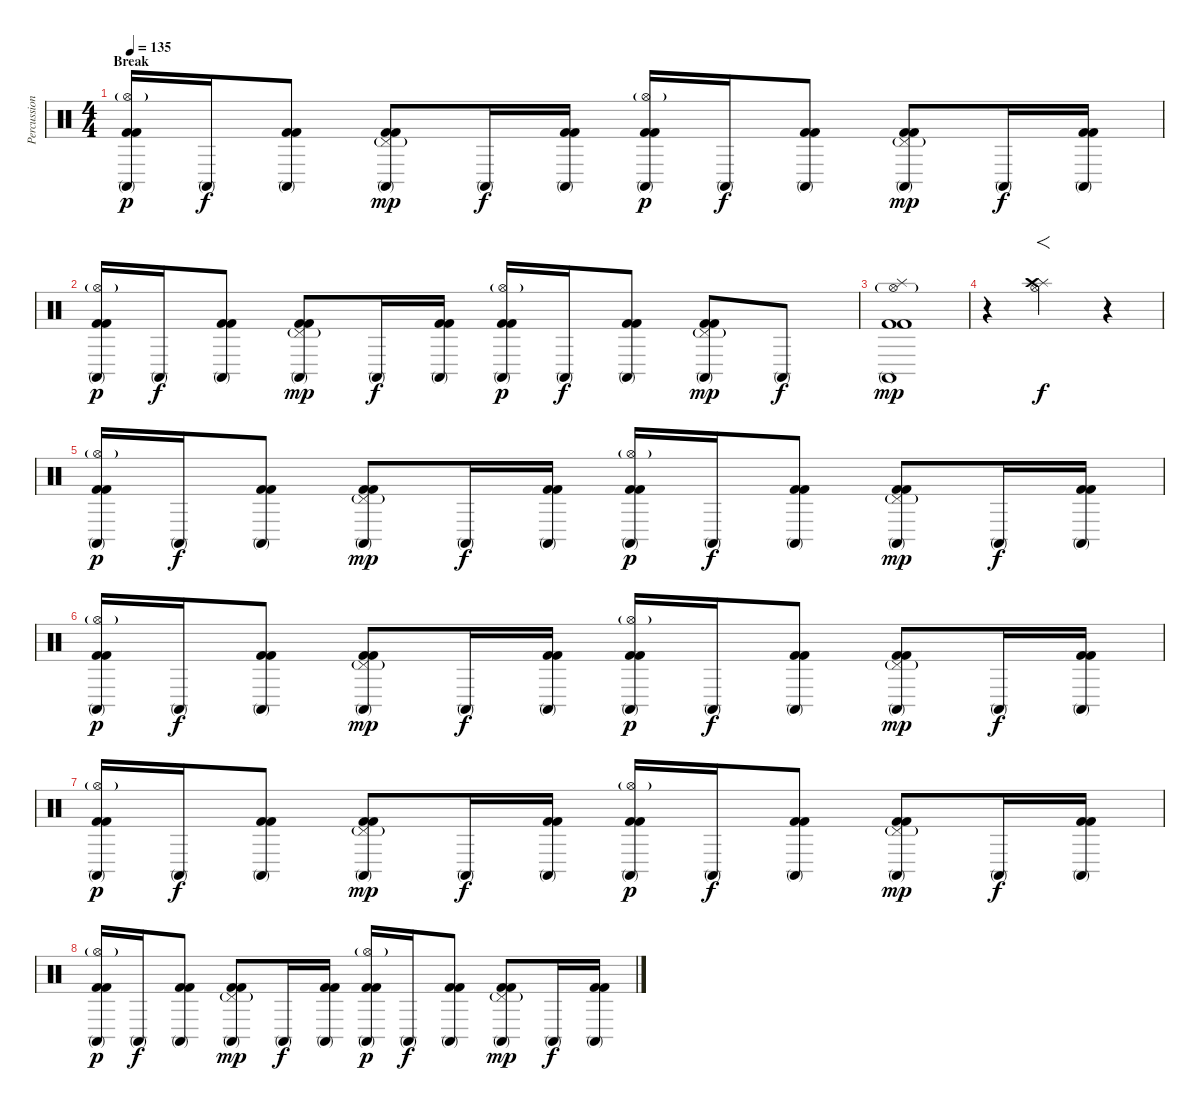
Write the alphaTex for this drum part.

\track ("Percussion" "Percussion") {instrument percussion}
\staff {score}
\articulation defaults
\ts (4 4)
\section ("" "Break")
\tempo 135
\clef neutral
\ks c
("Conga high (mute)" "Hi-Hat (open)"{g} "Kick (hit) 2" "Kick (hit) 2").16{dy p} "Conga high (mute)".16{dy f} ("Conga high (mute)" "Kick (hit) 2" "Kick (hit) 2").8 ("Conga high (mute)" "Pedal Hi-Hat (hit)"{g} "Kick (hit) 2" "Kick (hit) 2").8{dy mp} "Conga high (mute)".16{dy f} ("Conga high (mute)" "Kick (hit) 2" "Kick (hit) 2").16 ("Conga high (mute)" "Hi-Hat (open)"{g} "Kick (hit) 2" "Kick (hit) 2").16{dy p} "Conga high (mute)".16{dy f} ("Conga high (mute)" "Kick (hit) 2" "Kick (hit) 2").8 ("Conga high (mute)" "Pedal Hi-Hat (hit)"{g} "Kick (hit) 2" "Kick (hit) 2").8{dy mp} "Conga high (mute)".16{dy f} ("Conga high (mute)" "Kick (hit) 2" "Kick (hit) 2").16 |
("Conga high (mute)" "Hi-Hat (open)"{g} "Kick (hit) 2" "Kick (hit) 2").16{dy p} "Conga high (mute)".16{dy f} ("Conga high (mute)" "Kick (hit) 2" "Kick (hit) 2").8 ("Conga high (mute)" "Pedal Hi-Hat (hit)"{g} "Kick (hit) 2" "Kick (hit) 2").8{dy mp} "Conga high (mute)".16{dy f} ("Conga high (mute)" "Kick (hit) 2" "Kick (hit) 2").16 ("Conga high (mute)" "Hi-Hat (open)"{g} "Kick (hit) 2" "Kick (hit) 2").16{dy p} "Conga high (mute)".16{dy f} ("Conga high (mute)" "Kick (hit) 2" "Kick (hit) 2").8 ("Conga high (mute)" "Pedal Hi-Hat (hit)"{g} "Kick (hit) 2" "Kick (hit) 2").8{dy mp} "Conga high (mute)".8{dy f} |
("Conga high (mute)" "Hi-Hat (open)"{g} "Splash (hit)" "Kick (hit) 2" "Kick (hit) 2").1{dy mp} |
r.4 ("Hi-Hat (open)" "Splash (hit)" "Crash high (hit)").2{f dy f} r.4 |
("Conga high (mute)" "Hi-Hat (open)"{g} "Kick (hit) 2" "Kick (hit) 2").16{dy p} "Conga high (mute)".16{dy f} ("Conga high (mute)" "Kick (hit) 2" "Kick (hit) 2").8 ("Conga high (mute)" "Pedal Hi-Hat (hit)"{g} "Kick (hit) 2" "Kick (hit) 2").8{dy mp} "Conga high (mute)".16{dy f} ("Conga high (mute)" "Kick (hit) 2" "Kick (hit) 2").16 ("Conga high (mute)" "Hi-Hat (open)"{g} "Kick (hit) 2" "Kick (hit) 2").16{dy p} "Conga high (mute)".16{dy f} ("Conga high (mute)" "Kick (hit) 2" "Kick (hit) 2").8 ("Conga high (mute)" "Pedal Hi-Hat (hit)"{g} "Kick (hit) 2" "Kick (hit) 2").8{dy mp} "Conga high (mute)".16{dy f} ("Conga high (mute)" "Kick (hit) 2" "Kick (hit) 2").16 |
("Conga high (mute)" "Hi-Hat (open)"{g} "Kick (hit) 2" "Kick (hit) 2").16{dy p} "Conga high (mute)".16{dy f} ("Conga high (mute)" "Kick (hit) 2" "Kick (hit) 2").8 ("Conga high (mute)" "Pedal Hi-Hat (hit)"{g} "Kick (hit) 2" "Kick (hit) 2").8{dy mp} "Conga high (mute)".16{dy f} ("Conga high (mute)" "Kick (hit) 2" "Kick (hit) 2").16 ("Conga high (mute)" "Hi-Hat (open)"{g} "Kick (hit) 2" "Kick (hit) 2").16{dy p} "Conga high (mute)".16{dy f} ("Conga high (mute)" "Kick (hit) 2" "Kick (hit) 2").8 ("Conga high (mute)" "Pedal Hi-Hat (hit)"{g} "Kick (hit) 2" "Kick (hit) 2").8{dy mp} "Conga high (mute)".16{dy f} ("Conga high (mute)" "Kick (hit) 2" "Kick (hit) 2").16 |
("Conga high (mute)" "Hi-Hat (open)"{g} "Kick (hit) 2" "Kick (hit) 2").16{dy p} "Conga high (mute)".16{dy f} ("Conga high (mute)" "Kick (hit) 2" "Kick (hit) 2").8 ("Conga high (mute)" "Pedal Hi-Hat (hit)"{g} "Kick (hit) 2" "Kick (hit) 2").8{dy mp} "Conga high (mute)".16{dy f} ("Conga high (mute)" "Kick (hit) 2" "Kick (hit) 2").16 ("Conga high (mute)" "Hi-Hat (open)"{g} "Kick (hit) 2" "Kick (hit) 2").16{dy p} "Conga high (mute)".16{dy f} ("Conga high (mute)" "Kick (hit) 2" "Kick (hit) 2").8 ("Conga high (mute)" "Pedal Hi-Hat (hit)"{g} "Kick (hit) 2" "Kick (hit) 2").8{dy mp} "Conga high (mute)".16{dy f} ("Conga high (mute)" "Kick (hit) 2" "Kick (hit) 2").16 |
("Conga high (mute)" "Hi-Hat (open)"{g} "Kick (hit) 2" "Kick (hit) 2").16{dy p} "Conga high (mute)".16{dy f} ("Conga high (mute)" "Kick (hit) 2" "Kick (hit) 2").8 ("Conga high (mute)" "Pedal Hi-Hat (hit)"{g} "Kick (hit) 2" "Kick (hit) 2").8{dy mp} "Conga high (mute)".16{dy f} ("Conga high (mute)" "Kick (hit) 2" "Kick (hit) 2").16 ("Conga high (mute)" "Hi-Hat (open)"{g} "Kick (hit) 2" "Kick (hit) 2").16{dy p} "Conga high (mute)".16{dy f} ("Conga high (mute)" "Kick (hit) 2" "Kick (hit) 2").8 ("Conga high (mute)" "Pedal Hi-Hat (hit)"{g} "Kick (hit) 2" "Kick (hit) 2").8{dy mp} "Conga high (mute)".16{dy f} ("Conga high (mute)" "Kick (hit) 2" "Kick (hit) 2").16
